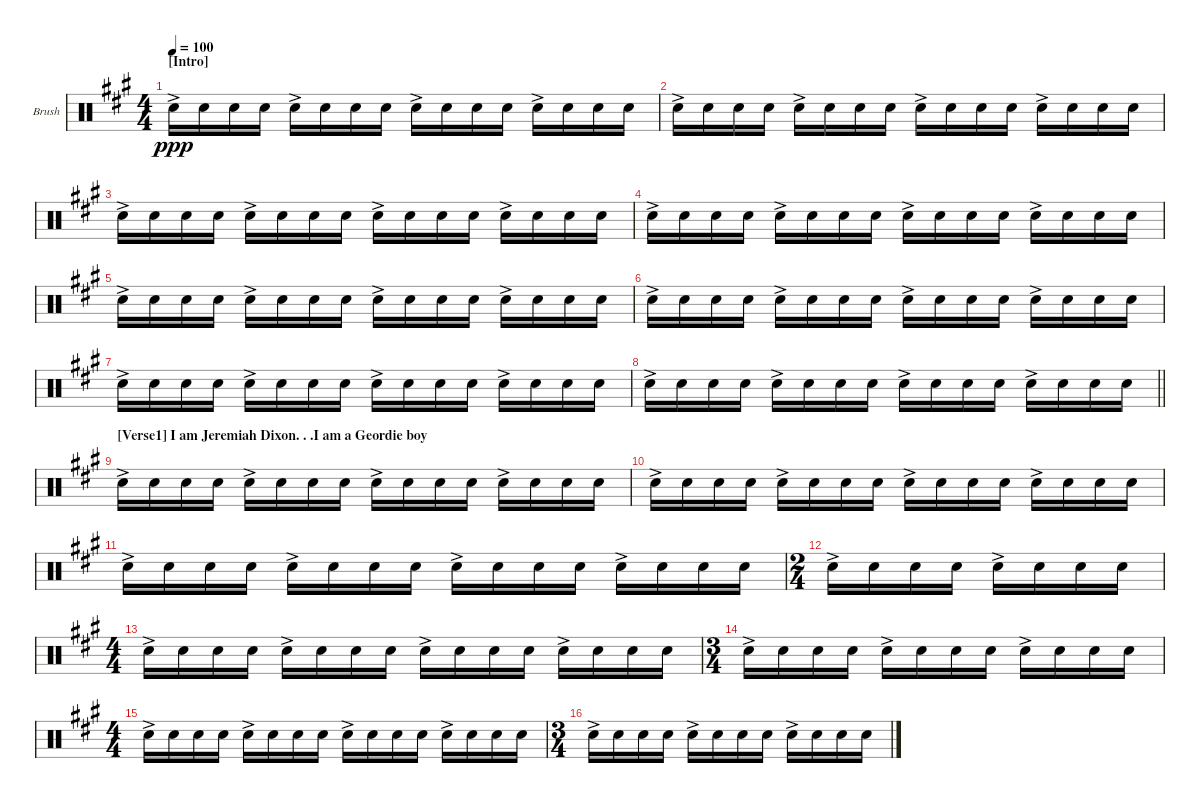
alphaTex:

\bracketExtendMode groupsimilarinstruments
\firstSystemTrackNameOrientation horizontal
\otherSystemsTrackNameOrientation horizontal
\track ("Brush Snare" "Brush") {instrument percussion}
\staff {score}
\articulation defaults
\ts (4 4)
\section ("" "[Intro]")
\tempo 100
\clef neutral
\ks f#minor "Snare (hit) 2"{ac}.16{dy ppp} "Snare (hit) 2".16 "Snare (hit) 2".16 "Snare (hit) 2".16 "Snare (hit) 2"{ac}.16 "Snare (hit) 2".16 "Snare (hit) 2".16 "Snare (hit) 2".16 "Snare (hit) 2"{ac}.16 "Snare (hit) 2".16 "Snare (hit) 2".16 "Snare (hit) 2".16 "Snare (hit) 2"{ac}.16 "Snare (hit) 2".16 "Snare (hit) 2".16 "Snare (hit) 2".16
|
"Snare (hit) 2"{ac}.16 "Snare (hit) 2".16 "Snare (hit) 2".16 "Snare (hit) 2".16 "Snare (hit) 2"{ac}.16 "Snare (hit) 2".16 "Snare (hit) 2".16 "Snare (hit) 2".16 "Snare (hit) 2"{ac}.16 "Snare (hit) 2".16 "Snare (hit) 2".16 "Snare (hit) 2".16 "Snare (hit) 2"{ac}.16 "Snare (hit) 2".16 "Snare (hit) 2".16 "Snare (hit) 2".16 |
"Snare (hit) 2"{ac}.16 "Snare (hit) 2".16 "Snare (hit) 2".16 "Snare (hit) 2".16 "Snare (hit) 2"{ac}.16 "Snare (hit) 2".16 "Snare (hit) 2".16 "Snare (hit) 2".16 "Snare (hit) 2"{ac}.16 "Snare (hit) 2".16 "Snare (hit) 2".16 "Snare (hit) 2".16 "Snare (hit) 2"{ac}.16 "Snare (hit) 2".16 "Snare (hit) 2".16 "Snare (hit) 2".16 |
"Snare (hit) 2"{ac}.16 "Snare (hit) 2".16 "Snare (hit) 2".16 "Snare (hit) 2".16 "Snare (hit) 2"{ac}.16 "Snare (hit) 2".16 "Snare (hit) 2".16 "Snare (hit) 2".16 "Snare (hit) 2"{ac}.16 "Snare (hit) 2".16 "Snare (hit) 2".16 "Snare (hit) 2".16 "Snare (hit) 2"{ac}.16 "Snare (hit) 2".16 "Snare (hit) 2".16 "Snare (hit) 2".16 |
"Snare (hit) 2"{ac}.16 "Snare (hit) 2".16 "Snare (hit) 2".16 "Snare (hit) 2".16 "Snare (hit) 2"{ac}.16 "Snare (hit) 2".16 "Snare (hit) 2".16 "Snare (hit) 2".16 "Snare (hit) 2"{ac}.16 "Snare (hit) 2".16 "Snare (hit) 2".16 "Snare (hit) 2".16 "Snare (hit) 2"{ac}.16 "Snare (hit) 2".16 "Snare (hit) 2".16 "Snare (hit) 2".16 |
"Snare (hit) 2"{ac}.16 "Snare (hit) 2".16 "Snare (hit) 2".16 "Snare (hit) 2".16 "Snare (hit) 2"{ac}.16 "Snare (hit) 2".16 "Snare (hit) 2".16 "Snare (hit) 2".16 "Snare (hit) 2"{ac}.16 "Snare (hit) 2".16 "Snare (hit) 2".16 "Snare (hit) 2".16 "Snare (hit) 2"{ac}.16 "Snare (hit) 2".16 "Snare (hit) 2".16 "Snare (hit) 2".16 |
"Snare (hit) 2"{ac}.16 "Snare (hit) 2".16 "Snare (hit) 2".16 "Snare (hit) 2".16 "Snare (hit) 2"{ac}.16 "Snare (hit) 2".16 "Snare (hit) 2".16 "Snare (hit) 2".16 "Snare (hit) 2"{ac}.16 "Snare (hit) 2".16 "Snare (hit) 2".16 "Snare (hit) 2".16 "Snare (hit) 2"{ac}.16 "Snare (hit) 2".16 "Snare (hit) 2".16 "Snare (hit) 2".16 |
\barLineRight lightlight "Snare (hit) 2"{ac}.16 "Snare (hit) 2".16 "Snare (hit) 2".16 "Snare (hit) 2".16 "Snare (hit) 2"{ac}.16 "Snare (hit) 2".16 "Snare (hit) 2".16 "Snare (hit) 2".16 "Snare (hit) 2"{ac}.16 "Snare (hit) 2".16 "Snare (hit) 2".16 "Snare (hit) 2".16 "Snare (hit) 2"{ac}.16 "Snare (hit) 2".16 "Snare (hit) 2".16 "Snare (hit) 2".16
|
\section ("" "[Verse1] I am Jeremiah Dixon. . .I am a Geordie boy")
"Snare (hit) 2"{ac}.16 "Snare (hit) 2".16 "Snare (hit) 2".16 "Snare (hit) 2".16 "Snare (hit) 2"{ac}.16 "Snare (hit) 2".16 "Snare (hit) 2".16 "Snare (hit) 2".16 "Snare (hit) 2"{ac}.16 "Snare (hit) 2".16 "Snare (hit) 2".16 "Snare (hit) 2".16 "Snare (hit) 2"{ac}.16 "Snare (hit) 2".16 "Snare (hit) 2".16 "Snare (hit) 2".16 |
"Snare (hit) 2"{ac}.16 "Snare (hit) 2".16 "Snare (hit) 2".16 "Snare (hit) 2".16 "Snare (hit) 2"{ac}.16 "Snare (hit) 2".16 "Snare (hit) 2".16 "Snare (hit) 2".16 "Snare (hit) 2"{ac}.16 "Snare (hit) 2".16 "Snare (hit) 2".16 "Snare (hit) 2".16 "Snare (hit) 2"{ac}.16 "Snare (hit) 2".16 "Snare (hit) 2".16 "Snare (hit) 2".16 |
"Snare (hit) 2"{ac}.16 "Snare (hit) 2".16 "Snare (hit) 2".16 "Snare (hit) 2".16 "Snare (hit) 2"{ac}.16 "Snare (hit) 2".16 "Snare (hit) 2".16 "Snare (hit) 2".16 "Snare (hit) 2"{ac}.16 "Snare (hit) 2".16 "Snare (hit) 2".16 "Snare (hit) 2".16 "Snare (hit) 2"{ac}.16 "Snare (hit) 2".16 "Snare (hit) 2".16 "Snare (hit) 2".16 |
\ts (2 4)
"Snare (hit) 2"{ac}.16 "Snare (hit) 2".16 "Snare (hit) 2".16 "Snare (hit) 2".16 "Snare (hit) 2"{ac}.16 "Snare (hit) 2".16 "Snare (hit) 2".16 "Snare (hit) 2".16 |
\ts (4 4)
"Snare (hit) 2"{ac}.16 "Snare (hit) 2".16 "Snare (hit) 2".16 "Snare (hit) 2".16 "Snare (hit) 2"{ac}.16 "Snare (hit) 2".16 "Snare (hit) 2".16 "Snare (hit) 2".16 "Snare (hit) 2"{ac}.16 "Snare (hit) 2".16 "Snare (hit) 2".16 "Snare (hit) 2".16 "Snare (hit) 2"{ac}.16 "Snare (hit) 2".16 "Snare (hit) 2".16 "Snare (hit) 2".16 |
\ts (3 4)
"Snare (hit) 2"{ac}.16 "Snare (hit) 2".16 "Snare (hit) 2".16 "Snare (hit) 2".16 "Snare (hit) 2"{ac}.16 "Snare (hit) 2".16 "Snare (hit) 2".16 "Snare (hit) 2".16 "Snare (hit) 2"{ac}.16 "Snare (hit) 2".16 "Snare (hit) 2".16 "Snare (hit) 2".16 |
\ts (4 4)
"Snare (hit) 2"{ac}.16 "Snare (hit) 2".16 "Snare (hit) 2".16 "Snare (hit) 2".16 "Snare (hit) 2"{ac}.16 "Snare (hit) 2".16 "Snare (hit) 2".16 "Snare (hit) 2".16 "Snare (hit) 2"{ac}.16 "Snare (hit) 2".16 "Snare (hit) 2".16 "Snare (hit) 2".16 "Snare (hit) 2"{ac}.16 "Snare (hit) 2".16 "Snare (hit) 2".16 "Snare (hit) 2".16 |
\ts (3 4)
"Snare (hit) 2"{ac}.16 "Snare (hit) 2".16 "Snare (hit) 2".16 "Snare (hit) 2".16 "Snare (hit) 2"{ac}.16 "Snare (hit) 2".16 "Snare (hit) 2".16 "Snare (hit) 2".16 "Snare (hit) 2"{ac}.16 "Snare (hit) 2".16 "Snare (hit) 2".16 "Snare (hit) 2".16
